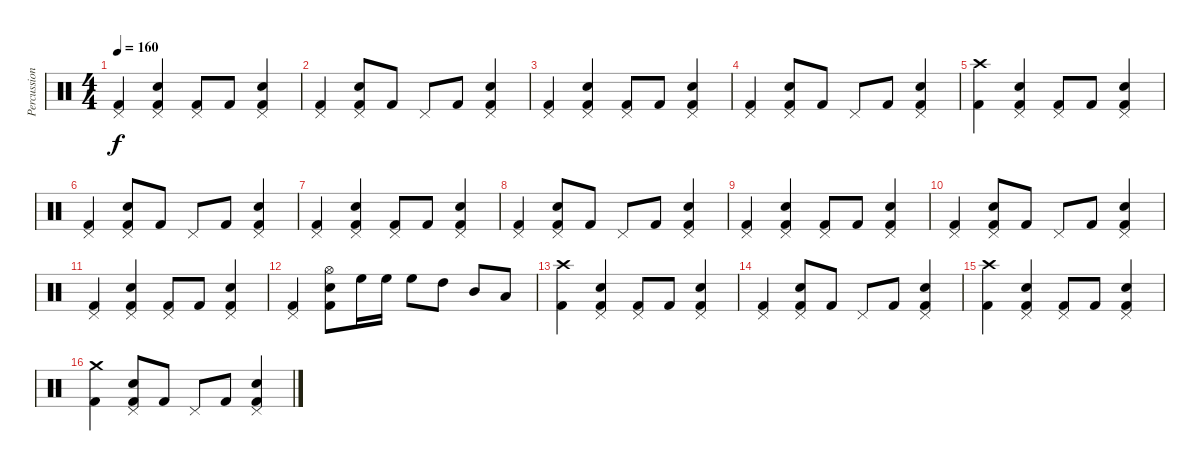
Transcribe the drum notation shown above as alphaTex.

\track ("Percussion" "Percussion") {instrument percussion}
\staff {score}
\articulation defaults
\ts (4 4)
\tempo 160
\clef neutral
\ks c
("Pedal Hi-Hat (hit)" "Kick (hit) 2").4{dy f} ("Pedal Hi-Hat (hit)" "Snare (hit) 2" "Kick (hit) 2").4 ("Pedal Hi-Hat (hit)" "Kick (hit) 2").8 "Kick (hit) 2".8 ("Pedal Hi-Hat (hit)" "Snare (hit) 2" "Kick (hit) 2").4 |
("Pedal Hi-Hat (hit)" "Kick (hit) 2").4 ("Pedal Hi-Hat (hit)" "Snare (hit) 2" "Kick (hit) 2").8 "Kick (hit) 2".8 "Pedal Hi-Hat (hit)".8 "Kick (hit) 2".8 ("Pedal Hi-Hat (hit)" "Snare (hit) 2" "Kick (hit) 2").4 |
("Pedal Hi-Hat (hit)" "Kick (hit) 2").4 ("Pedal Hi-Hat (hit)" "Snare (hit) 2" "Kick (hit) 2").4 ("Pedal Hi-Hat (hit)" "Kick (hit) 2").8 "Kick (hit) 2".8 ("Pedal Hi-Hat (hit)" "Snare (hit) 2" "Kick (hit) 2").4 |
("Pedal Hi-Hat (hit)" "Kick (hit) 2").4 ("Pedal Hi-Hat (hit)" "Snare (hit) 2" "Kick (hit) 2").8 "Kick (hit) 2".8 "Pedal Hi-Hat (hit)".8 "Kick (hit) 2".8 ("Pedal Hi-Hat (hit)" "Snare (hit) 2" "Kick (hit) 2").4 |
("Crash high (hit)" "Kick (hit) 2").4 ("Pedal Hi-Hat (hit)" "Snare (hit) 2" "Kick (hit) 2").4 ("Pedal Hi-Hat (hit)" "Kick (hit) 2").8 "Kick (hit) 2".8 ("Pedal Hi-Hat (hit)" "Snare (hit) 2" "Kick (hit) 2").4 |
("Pedal Hi-Hat (hit)" "Kick (hit) 2").4 ("Pedal Hi-Hat (hit)" "Snare (hit) 2" "Kick (hit) 2").8 "Kick (hit) 2".8 "Pedal Hi-Hat (hit)".8 "Kick (hit) 2".8 ("Pedal Hi-Hat (hit)" "Snare (hit) 2" "Kick (hit) 2").4 |
("Pedal Hi-Hat (hit)" "Kick (hit) 2").4 ("Pedal Hi-Hat (hit)" "Snare (hit) 2" "Kick (hit) 2").4 ("Pedal Hi-Hat (hit)" "Kick (hit) 2").8 "Kick (hit) 2".8 ("Pedal Hi-Hat (hit)" "Snare (hit) 2" "Kick (hit) 2").4 |
("Pedal Hi-Hat (hit)" "Kick (hit) 2").4 ("Pedal Hi-Hat (hit)" "Snare (hit) 2" "Kick (hit) 2").8 "Kick (hit) 2".8 "Pedal Hi-Hat (hit)".8 "Kick (hit) 2".8 ("Pedal Hi-Hat (hit)" "Snare (hit) 2" "Kick (hit) 2").4 |
("Pedal Hi-Hat (hit)" "Kick (hit) 2").4 ("Pedal Hi-Hat (hit)" "Snare (hit) 2" "Kick (hit) 2").4 ("Pedal Hi-Hat (hit)" "Kick (hit) 2").8 "Kick (hit) 2".8 ("Pedal Hi-Hat (hit)" "Snare (hit) 2" "Kick (hit) 2").4 |
("Pedal Hi-Hat (hit)" "Kick (hit) 2").4 ("Pedal Hi-Hat (hit)" "Snare (hit) 2" "Kick (hit) 2").8 "Kick (hit) 2".8 "Pedal Hi-Hat (hit)".8 "Kick (hit) 2".8 ("Pedal Hi-Hat (hit)" "Snare (hit) 2" "Kick (hit) 2").4 |
("Pedal Hi-Hat (hit)" "Kick (hit) 2").4 ("Pedal Hi-Hat (hit)" "Snare (hit) 2" "Kick (hit) 2").4 ("Pedal Hi-Hat (hit)" "Kick (hit) 2").8 "Kick (hit) 2".8 ("Pedal Hi-Hat (hit)" "Snare (hit) 2" "Kick (hit) 2").4 |
("Pedal Hi-Hat (hit)" "Kick (hit) 2").4 ("Hi-Hat (open)" "Snare (hit) 2" "Kick (hit) 2").8 "High Floor Tom (hit)".16 "High Floor Tom (hit)".16 "High Floor Tom (hit)".8 "High Tom (hit)".8 "Mid Tom (hit)".8 "Low Tom (hit)".8 |
("Crash high (hit)" "Kick (hit) 2").4 ("Pedal Hi-Hat (hit)" "Snare (hit) 2" "Kick (hit) 2").4 ("Pedal Hi-Hat (hit)" "Kick (hit) 2").8 "Kick (hit) 2".8 ("Pedal Hi-Hat (hit)" "Snare (hit) 2" "Kick (hit) 2").4 |
("Pedal Hi-Hat (hit)" "Kick (hit) 2").4 ("Pedal Hi-Hat (hit)" "Snare (hit) 2" "Kick (hit) 2").8 "Kick (hit) 2".8 "Pedal Hi-Hat (hit)".8 "Kick (hit) 2".8 ("Pedal Hi-Hat (hit)" "Snare (hit) 2" "Kick (hit) 2").4 |
("Crash high (hit)" "Kick (hit) 2").4 ("Pedal Hi-Hat (hit)" "Snare (hit) 2" "Kick (hit) 2").4 ("Pedal Hi-Hat (hit)" "Kick (hit) 2").8 "Kick (hit) 2".8 ("Pedal Hi-Hat (hit)" "Snare (hit) 2" "Kick (hit) 2").4 |
("Crash medium (hit)" "Kick (hit) 2").4 ("Pedal Hi-Hat (hit)" "Snare (hit) 2" "Kick (hit) 2").8 "Kick (hit) 2".8 "Pedal Hi-Hat (hit)".8 "Kick (hit) 2".8 ("Pedal Hi-Hat (hit)" "Snare (hit) 2" "Kick (hit) 2").4
